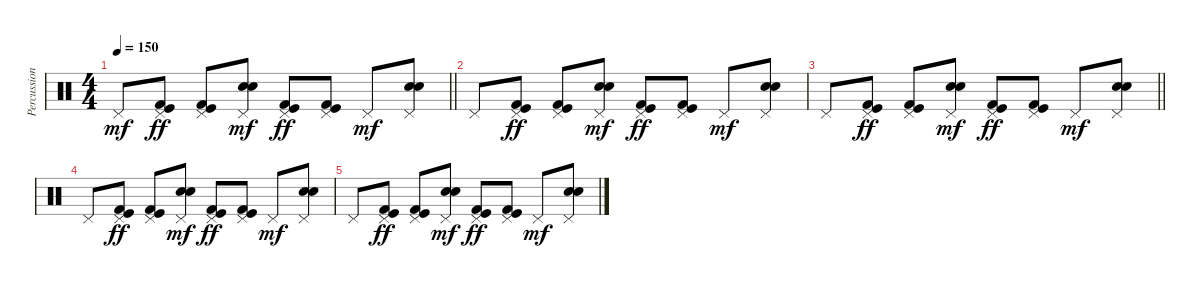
\track ("Percussions" "Percussion") {instrument percussion}
\staff {score}
\articulation defaults
\ts (4 4)
\tempo 150
\clef neutral
\barLineRight lightlight
\ks c "Pedal Hi-Hat (hit)".8{dy mf}
("Pedal Hi-Hat (hit)" "Kick (hit)" "Kick (hit) 2").8{dy ff} ("Pedal Hi-Hat (hit)" "Kick (hit)" "Kick (hit) 2").8 ("Pedal Hi-Hat (hit)" "Electric Snare (hit)" "Snare (hit) 2").8{dy mf} ("Pedal Hi-Hat (hit)" "Kick (hit)" "Kick (hit) 2").8{dy ff} ("Pedal Hi-Hat (hit)" "Kick (hit)" "Kick (hit) 2").8 "Pedal Hi-Hat (hit)".8{dy mf} ("Pedal Hi-Hat (hit)" "Electric Snare (hit)" "Snare (hit) 2").8 |
"Pedal Hi-Hat (hit)".8 ("Pedal Hi-Hat (hit)" "Kick (hit)" "Kick (hit) 2").8{dy ff} ("Pedal Hi-Hat (hit)" "Kick (hit)" "Kick (hit) 2").8 ("Pedal Hi-Hat (hit)" "Electric Snare (hit)" "Snare (hit) 2").8{dy mf} ("Pedal Hi-Hat (hit)" "Kick (hit)" "Kick (hit) 2").8{dy ff} ("Pedal Hi-Hat (hit)" "Kick (hit)" "Kick (hit) 2").8 "Pedal Hi-Hat (hit)".8{dy mf} ("Pedal Hi-Hat (hit)" "Electric Snare (hit)" "Snare (hit) 2").8 |
\barLineRight lightlight "Pedal Hi-Hat (hit)".8
("Pedal Hi-Hat (hit)" "Kick (hit)" "Kick (hit) 2").8{dy ff} ("Pedal Hi-Hat (hit)" "Kick (hit)" "Kick (hit) 2").8 ("Pedal Hi-Hat (hit)" "Electric Snare (hit)" "Snare (hit) 2").8{dy mf} ("Pedal Hi-Hat (hit)" "Kick (hit)" "Kick (hit) 2").8{dy ff} ("Pedal Hi-Hat (hit)" "Kick (hit)" "Kick (hit) 2").8 "Pedal Hi-Hat (hit)".8{dy mf} ("Pedal Hi-Hat (hit)" "Electric Snare (hit)" "Snare (hit) 2").8 |
"Pedal Hi-Hat (hit)".8 ("Pedal Hi-Hat (hit)" "Kick (hit)" "Kick (hit) 2").8{dy ff} ("Pedal Hi-Hat (hit)" "Kick (hit)" "Kick (hit) 2").8 ("Pedal Hi-Hat (hit)" "Electric Snare (hit)" "Snare (hit) 2").8{dy mf} ("Pedal Hi-Hat (hit)" "Kick (hit)" "Kick (hit) 2").8{dy ff} ("Pedal Hi-Hat (hit)" "Kick (hit)" "Kick (hit) 2").8 "Pedal Hi-Hat (hit)".8{dy mf} ("Pedal Hi-Hat (hit)" "Electric Snare (hit)" "Snare (hit) 2").8 |
"Pedal Hi-Hat (hit)".8 ("Pedal Hi-Hat (hit)" "Kick (hit)" "Kick (hit) 2").8{dy ff} ("Pedal Hi-Hat (hit)" "Kick (hit)" "Kick (hit) 2").8 ("Pedal Hi-Hat (hit)" "Electric Snare (hit)" "Snare (hit) 2").8{dy mf} ("Pedal Hi-Hat (hit)" "Kick (hit)" "Kick (hit) 2").8{dy ff} ("Pedal Hi-Hat (hit)" "Kick (hit)" "Kick (hit) 2").8 "Pedal Hi-Hat (hit)".8{dy mf} ("Pedal Hi-Hat (hit)" "Electric Snare (hit)" "Snare (hit) 2").8
